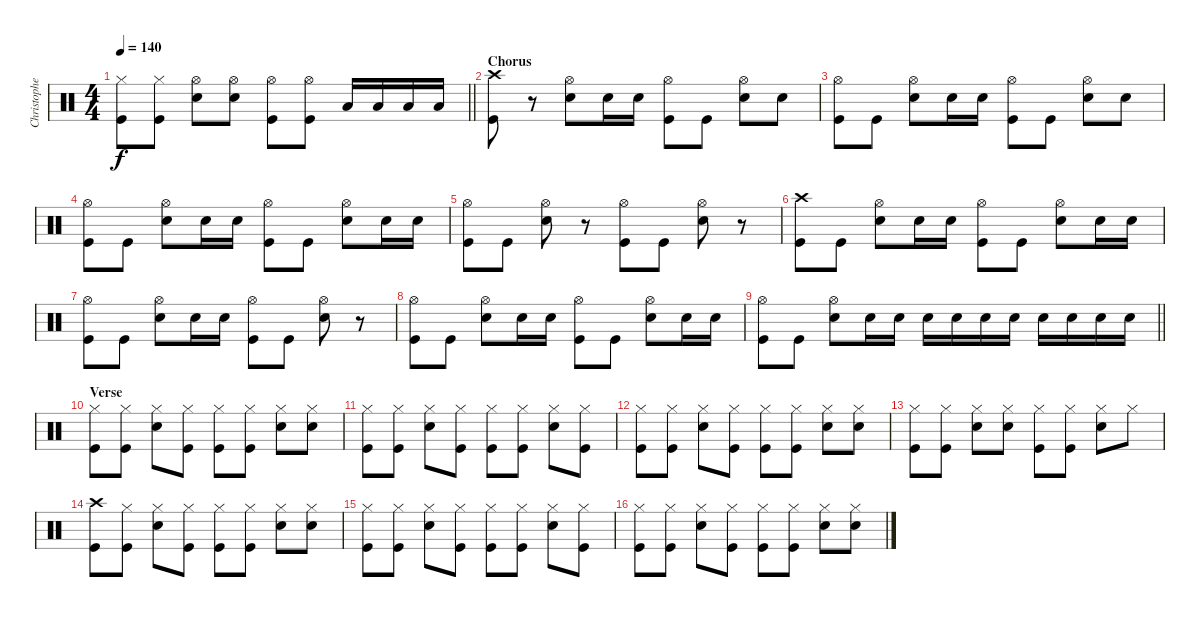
\track ("Christopher - Drums" "Christophe") {instrument percussion}
\staff {score}
\articulation defaults
\ts (4 4)
\tempo 140
\clef neutral
\barLineRight lightlight
\ks c
("Hi-Hat (closed)" "Kick (hit)").8{dy f} ("Hi-Hat (closed)" "Kick (hit)").8 ("Hi-Hat (open)" "Snare (hit) 2").8 ("Hi-Hat (open)" "Snare (hit) 2").8 ("Hi-Hat (open)" "Kick (hit)").8 ("Hi-Hat (open)" "Kick (hit)").8 "Low Floor Tom (hit)".16 "Low Floor Tom (hit)".16 "Low Floor Tom (hit)".16 "Low Floor Tom (hit)".16 |
\section ("" "Chorus")
("Crash high (hit)" "Kick (hit)").8 r.8 ("Hi-Hat (open)" "Snare (hit) 2").8 "Snare (hit) 2".16 "Snare (hit) 2".16 ("Hi-Hat (open)" "Kick (hit)").8 "Kick (hit)".8 ("Hi-Hat (open)" "Snare (hit) 2").8 "Snare (hit) 2".8 |
("Hi-Hat (open)" "Kick (hit)").8 "Kick (hit)".8 ("Hi-Hat (open)" "Snare (hit) 2").8 "Snare (hit) 2".16 "Snare (hit) 2".16 ("Hi-Hat (open)" "Kick (hit)").8 "Kick (hit)".8 ("Hi-Hat (open)" "Snare (hit) 2").8 "Snare (hit) 2".8 |
("Hi-Hat (open)" "Kick (hit)").8 "Kick (hit)".8 ("Hi-Hat (open)" "Snare (hit) 2").8 "Snare (hit) 2".16 "Snare (hit) 2".16 ("Hi-Hat (open)" "Kick (hit)").8 "Kick (hit)".8 ("Hi-Hat (open)" "Snare (hit) 2").8 "Snare (hit) 2".16 "Snare (hit) 2".16 |
("Hi-Hat (open)" "Kick (hit)").8 "Kick (hit)".8 ("Hi-Hat (open)" "Snare (hit) 2").8 r.8 ("Hi-Hat (open)" "Kick (hit)").8 "Kick (hit)".8 ("Hi-Hat (open)" "Snare (hit) 2").8 r.8 |
("Crash high (hit)" "Kick (hit)").8 "Kick (hit)".8 ("Hi-Hat (open)" "Snare (hit) 2").8 "Snare (hit) 2".16 "Snare (hit) 2".16 ("Hi-Hat (open)" "Kick (hit)").8 "Kick (hit)".8 ("Hi-Hat (open)" "Snare (hit) 2").8 "Snare (hit) 2".16 "Snare (hit) 2".16 |
("Hi-Hat (open)" "Kick (hit)").8 "Kick (hit)".8 ("Hi-Hat (open)" "Snare (hit) 2").8 "Snare (hit) 2".16 "Snare (hit) 2".16 ("Hi-Hat (open)" "Kick (hit)").8 "Kick (hit)".8 ("Hi-Hat (open)" "Snare (hit) 2").8 r.8 |
("Hi-Hat (open)" "Kick (hit)").8 "Kick (hit)".8 ("Hi-Hat (open)" "Snare (hit) 2").8 "Snare (hit) 2".16 "Snare (hit) 2".16 ("Hi-Hat (open)" "Kick (hit)").8 "Kick (hit)".8 ("Hi-Hat (open)" "Snare (hit) 2").8 "Snare (hit) 2".16 "Snare (hit) 2".16 |
\barLineRight lightlight
("Hi-Hat (open)" "Kick (hit)").8 "Kick (hit)".8 ("Hi-Hat (open)" "Snare (hit) 2").8 "Snare (hit) 2".16 "Snare (hit) 2".16 "Snare (hit) 2".16 "Snare (hit) 2".16 "Snare (hit) 2".16 "Snare (hit) 2".16 "Snare (hit) 2".16 "Snare (hit) 2".16 "Snare (hit) 2".16 "Snare (hit) 2".16 |
\section ("" "Verse")
("Hi-Hat (closed)" "Kick (hit)").8 ("Hi-Hat (closed)" "Kick (hit)").8 ("Hi-Hat (closed)" "Snare (hit) 2").8 ("Hi-Hat (closed)" "Kick (hit)").8 ("Hi-Hat (closed)" "Kick (hit)").8 ("Hi-Hat (closed)" "Kick (hit)").8 ("Hi-Hat (closed)" "Snare (hit) 2").8 ("Hi-Hat (closed)" "Snare (hit) 2").8 |
("Hi-Hat (closed)" "Kick (hit)").8 ("Hi-Hat (closed)" "Kick (hit)").8 ("Hi-Hat (closed)" "Snare (hit) 2").8 ("Hi-Hat (closed)" "Kick (hit)").8 ("Hi-Hat (closed)" "Kick (hit)").8 ("Hi-Hat (closed)" "Kick (hit)").8 ("Hi-Hat (closed)" "Snare (hit) 2").8 ("Hi-Hat (closed)" "Kick (hit)").8 |
("Hi-Hat (closed)" "Kick (hit)").8 ("Hi-Hat (closed)" "Kick (hit)").8 ("Hi-Hat (closed)" "Snare (hit) 2").8 ("Hi-Hat (closed)" "Kick (hit)").8 ("Hi-Hat (closed)" "Kick (hit)").8 ("Hi-Hat (closed)" "Kick (hit)").8 ("Hi-Hat (closed)" "Snare (hit) 2").8 ("Hi-Hat (closed)" "Snare (hit) 2").8 |
("Hi-Hat (closed)" "Kick (hit)").8 ("Hi-Hat (closed)" "Kick (hit)").8 ("Hi-Hat (closed)" "Snare (hit) 2").8 ("Hi-Hat (closed)" "Snare (hit) 2").8 ("Hi-Hat (closed)" "Kick (hit)").8 ("Hi-Hat (closed)" "Kick (hit)").8 ("Hi-Hat (closed)" "Snare (hit) 2").8 "Hi-Hat (closed)".8 |
("Crash high (hit)" "Kick (hit)").8 ("Hi-Hat (closed)" "Kick (hit)").8 ("Hi-Hat (closed)" "Snare (hit) 2").8 ("Hi-Hat (closed)" "Kick (hit)").8 ("Hi-Hat (closed)" "Kick (hit)").8 ("Hi-Hat (closed)" "Kick (hit)").8 ("Hi-Hat (closed)" "Snare (hit) 2").8 ("Hi-Hat (closed)" "Snare (hit) 2").8 |
("Hi-Hat (closed)" "Kick (hit)").8 ("Hi-Hat (closed)" "Kick (hit)").8 ("Hi-Hat (closed)" "Snare (hit) 2").8 ("Hi-Hat (closed)" "Kick (hit)").8 ("Hi-Hat (closed)" "Kick (hit)").8 ("Hi-Hat (closed)" "Kick (hit)").8 ("Hi-Hat (closed)" "Snare (hit) 2").8 ("Hi-Hat (closed)" "Kick (hit)").8 |
("Hi-Hat (closed)" "Kick (hit)").8 ("Hi-Hat (closed)" "Kick (hit)").8 ("Hi-Hat (closed)" "Snare (hit) 2").8 ("Hi-Hat (closed)" "Kick (hit)").8 ("Hi-Hat (closed)" "Kick (hit)").8 ("Hi-Hat (closed)" "Kick (hit)").8 ("Hi-Hat (closed)" "Snare (hit) 2").8 ("Hi-Hat (closed)" "Snare (hit) 2").8
